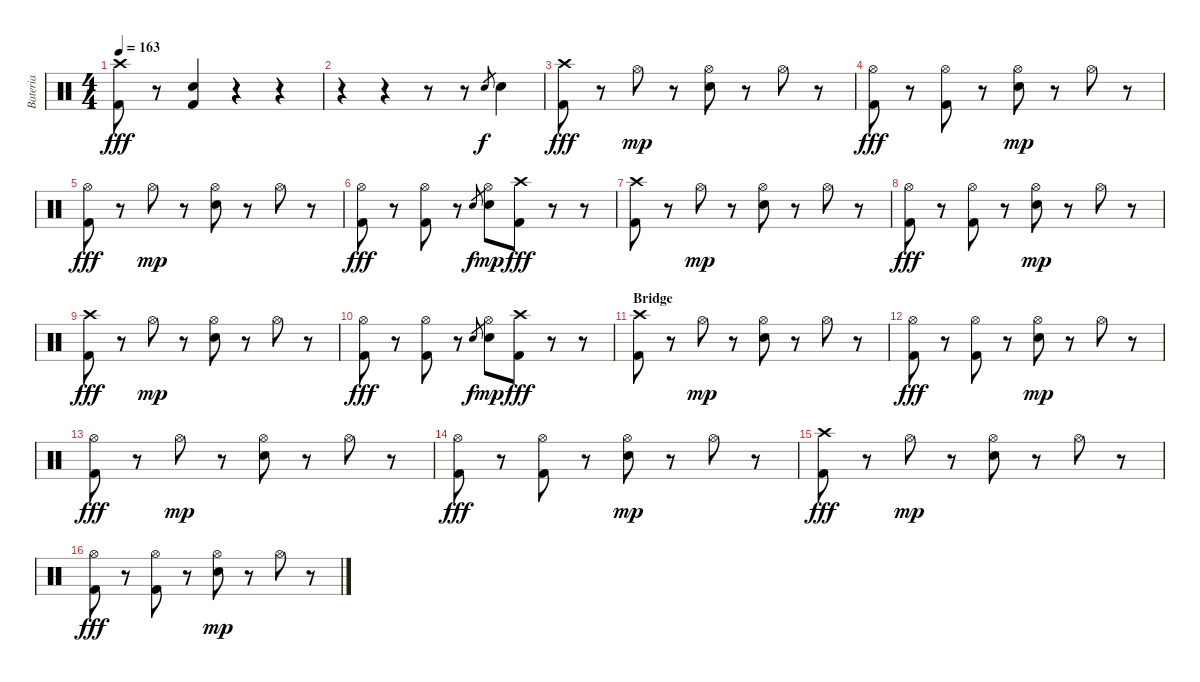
\track ("Bateria" "Bateria") {instrument percussion}
\staff {score}
\articulation defaults
\ts (4 4)
\tempo 163
\clef neutral
\ks c
("Crash high (hit)" "Kick (hit) 2").8{dy fff} r.8 ("Electric Snare (hit)" "Kick (hit) 2").4 r.4 r.4 |
r.4 r.4 r.8 r.8 "Electric Snare (hit)".8{gr dy f} "Electric Snare (hit)".4 |
("Crash high (hit)" "Kick (hit) 2").8{dy fff} r.8 "Hi-Hat (open)".8{dy mp} r.8 ("Hi-Hat (open)" "Electric Snare (hit)").8 r.8 "Hi-Hat (open)".8 r.8 |
("Hi-Hat (open)" "Kick (hit) 2").8{dy fff} r.8 ("Hi-Hat (open)" "Kick (hit) 2").8 r.8 ("Hi-Hat (open)" "Electric Snare (hit)").8{dy mp} r.8 "Hi-Hat (open)".8 r.8 |
("Hi-Hat (open)" "Kick (hit) 2").8{dy fff} r.8 "Hi-Hat (open)".8{dy mp} r.8 ("Hi-Hat (open)" "Electric Snare (hit)").8 r.8 "Hi-Hat (open)".8 r.8 |
("Hi-Hat (open)" "Kick (hit) 2").8{dy fff} r.8 ("Hi-Hat (open)" "Kick (hit) 2").8 r.8 "Electric Snare (hit)".8{gr dy f} ("Hi-Hat (open)" "Electric Snare (hit)").8{dy mp} ("Crash high (hit)" "Kick (hit) 2").8{dy fff} r.8 r.8 |
("Crash high (hit)" "Kick (hit) 2").8 r.8 "Hi-Hat (open)".8{dy mp} r.8 ("Hi-Hat (open)" "Electric Snare (hit)").8 r.8 "Hi-Hat (open)".8 r.8 |
("Hi-Hat (open)" "Kick (hit) 2").8{dy fff} r.8 ("Hi-Hat (open)" "Kick (hit) 2").8 r.8 ("Hi-Hat (open)" "Electric Snare (hit)").8{dy mp} r.8 "Hi-Hat (open)".8 r.8 |
("Crash high (hit)" "Kick (hit) 2").8{dy fff} r.8 "Hi-Hat (open)".8{dy mp} r.8 ("Hi-Hat (open)" "Electric Snare (hit)").8 r.8 "Hi-Hat (open)".8 r.8 |
("Hi-Hat (open)" "Kick (hit) 2").8{dy fff} r.8 ("Hi-Hat (open)" "Kick (hit) 2").8 r.8 "Electric Snare (hit)".8{gr dy f} ("Hi-Hat (open)" "Electric Snare (hit)").8{dy mp} ("Crash high (hit)" "Kick (hit) 2").8{dy fff} r.8 r.8 |
\section ("" "Bridge")
("Crash high (hit)" "Kick (hit) 2").8 r.8 "Hi-Hat (open)".8{dy mp} r.8 ("Hi-Hat (open)" "Electric Snare (hit)").8 r.8 "Hi-Hat (open)".8 r.8 |
("Hi-Hat (open)" "Kick (hit) 2").8{dy fff} r.8 ("Hi-Hat (open)" "Kick (hit) 2").8 r.8 ("Hi-Hat (open)" "Electric Snare (hit)").8{dy mp} r.8 "Hi-Hat (open)".8 r.8 |
("Hi-Hat (open)" "Kick (hit) 2").8{dy fff} r.8 "Hi-Hat (open)".8{dy mp} r.8 ("Hi-Hat (open)" "Electric Snare (hit)").8 r.8 "Hi-Hat (open)".8 r.8 |
("Hi-Hat (open)" "Kick (hit) 2").8{dy fff} r.8 ("Hi-Hat (open)" "Kick (hit) 2").8 r.8 ("Hi-Hat (open)" "Electric Snare (hit)").8{dy mp} r.8 "Hi-Hat (open)".8 r.8 |
("Crash high (hit)" "Kick (hit) 2").8{dy fff} r.8 "Hi-Hat (open)".8{dy mp} r.8 ("Hi-Hat (open)" "Electric Snare (hit)").8 r.8 "Hi-Hat (open)".8 r.8 |
("Hi-Hat (open)" "Kick (hit) 2").8{dy fff} r.8 ("Hi-Hat (open)" "Kick (hit) 2").8 r.8 ("Hi-Hat (open)" "Electric Snare (hit)").8{dy mp} r.8 "Hi-Hat (open)".8 r.8
